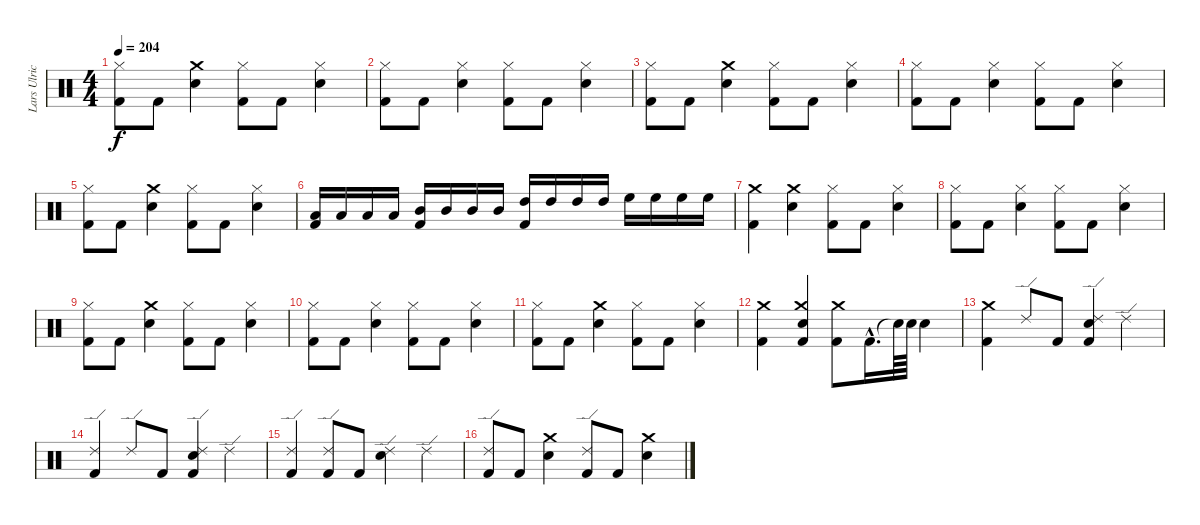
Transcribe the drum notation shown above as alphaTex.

\track ("Lars Ulrich (Drums)" "Lars Ulric") {instrument percussion}
\staff {score}
\articulation defaults
\ts (4 4)
\tempo 204
\clef neutral
\ks c
("Kick (hit) 2" "Hi-Hat (closed)").8{dy f} "Kick (hit) 2".8 ("Crash medium (hit)" "Snare (hit) 2").4 ("Kick (hit) 2" "Hi-Hat (closed)").8 "Kick (hit) 2".8 ("Snare (hit) 2" "Hi-Hat (closed)").4 |
("Kick (hit) 2" "Hi-Hat (closed)").8 "Kick (hit) 2".8 ("Snare (hit) 2" "Hi-Hat (closed)").4 ("Kick (hit) 2" "Hi-Hat (closed)").8 "Kick (hit) 2".8 ("Snare (hit) 2" "Hi-Hat (closed)").4 |
("Kick (hit) 2" "Hi-Hat (closed)").8 "Kick (hit) 2".8 ("Crash medium (hit)" "Snare (hit) 2").4 ("Kick (hit) 2" "Hi-Hat (closed)").8 "Kick (hit) 2".8 ("Snare (hit) 2" "Hi-Hat (closed)").4 |
("Kick (hit) 2" "Hi-Hat (closed)").8 "Kick (hit) 2".8 ("Snare (hit) 2" "Hi-Hat (closed)").4 ("Kick (hit) 2" "Hi-Hat (closed)").8 "Kick (hit) 2".8 ("Snare (hit) 2" "Hi-Hat (closed)").4 |
("Kick (hit) 2" "Hi-Hat (closed)").8 "Kick (hit) 2".8 ("Crash medium (hit)" "Snare (hit) 2").4 ("Kick (hit) 2" "Hi-Hat (closed)").8 "Kick (hit) 2".8 ("Snare (hit) 2" "Hi-Hat (closed)").4 |
("Low Tom (hit)" "Kick (hit) 2").16 "Low Tom (hit)".16 "Low Tom (hit)".16 "Low Tom (hit)".16 ("Mid Tom (hit)" "Kick (hit) 2").16 "Mid Tom (hit)".16 "Mid Tom (hit)".16 "Mid Tom (hit)".16 ("High Tom (hit)" "Kick (hit) 2").16 "High Tom (hit)".16 "High Tom (hit)".16 "High Tom (hit)".16 "High Floor Tom (hit)".16 "High Floor Tom (hit)".16 "High Floor Tom (hit)".16 "High Floor Tom (hit)".16 |
("Kick (hit) 2" "Crash medium (hit)").4 ("Snare (hit) 2" "Crash medium (hit)").4 ("Hi-Hat (closed)" "Kick (hit) 2").8 "Kick (hit) 2".8 ("Hi-Hat (closed)" "Snare (hit) 2").4 |
("Kick (hit) 2" "Hi-Hat (closed)").8 "Kick (hit) 2".8 ("Snare (hit) 2" "Hi-Hat (closed)").4 ("Kick (hit) 2" "Hi-Hat (closed)").8 "Kick (hit) 2".8 ("Snare (hit) 2" "Hi-Hat (closed)").4 |
("Kick (hit) 2" "Hi-Hat (closed)").8 "Kick (hit) 2".8 ("Crash medium (hit)" "Snare (hit) 2").4 ("Kick (hit) 2" "Hi-Hat (closed)").8 "Kick (hit) 2".8 ("Snare (hit) 2" "Hi-Hat (closed)").4 |
("Kick (hit) 2" "Hi-Hat (closed)").8 "Kick (hit) 2".8 ("Snare (hit) 2" "Hi-Hat (closed)").4 ("Kick (hit) 2" "Hi-Hat (closed)").8 "Kick (hit) 2".8 ("Snare (hit) 2" "Hi-Hat (closed)").4 |
("Kick (hit) 2" "Hi-Hat (closed)").8 "Kick (hit) 2".8 ("Crash medium (hit)" "Snare (hit) 2").4 ("Kick (hit) 2" "Hi-Hat (closed)").8 "Kick (hit) 2".8 ("Snare (hit) 2" "Hi-Hat (closed)").4 |
("Kick (hit) 2" "Crash medium (hit)").4 ("Kick (hit) 2" "Snare (hit) 2" "Crash medium (hit)").4 ("Kick (hit) 2" "Crash medium (hit)").8 "Kick (hit) 2"{hac}.16{d} "Snare (hit)"{t}.64 "Snare (hit) 2".64 "Snare (hit) 2".4 |
("Kick (hit) 2" "Crash medium (hit)").4 "Ride (edge) 2".8 "Kick (hit) 2".8 ("Kick (hit) 2" "Snare (hit) 2" "Ride (edge) 2").4 "Ride (edge) 2".4 |
("Kick (hit) 2" "Ride (edge) 2").4 "Ride (edge) 2".8 "Kick (hit) 2".8 ("Kick (hit) 2" "Snare (hit) 2" "Ride (edge) 2").4 "Ride (edge) 2".4 |
("Kick (hit) 2" "Ride (edge) 2").4 ("Kick (hit) 2" "Ride (edge) 2").8 "Kick (hit) 2".8 ("Ride (edge) 2" "Snare (hit) 2").4 "Ride (edge) 2".4 |
("Ride (edge) 2" "Kick (hit) 2").8 "Kick (hit) 2".8 ("Snare (hit) 2" "Crash medium (hit)").4 ("Ride (edge) 2" "Kick (hit) 2").8 "Kick (hit) 2".8 ("Snare (hit) 2" "Crash medium (hit)").4
